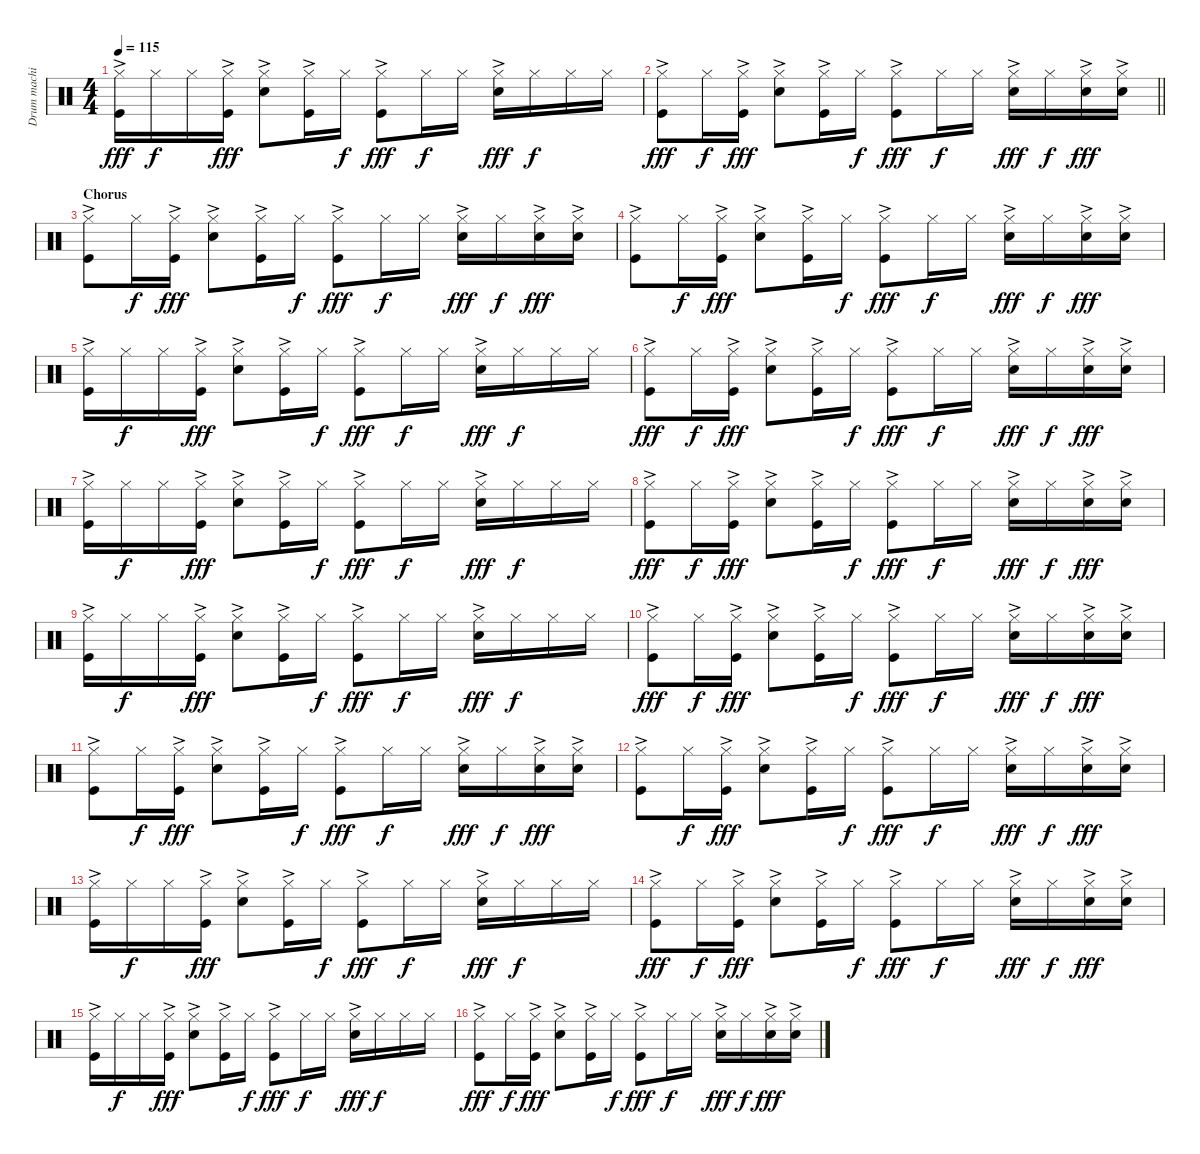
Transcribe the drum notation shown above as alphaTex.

\track ("Drum machine" "Drum machi") {instrument percussion}
\staff {score}
\articulation defaults
\ts (4 4)
\tempo 115
\clef neutral
\ks c
("Hi-Hat (closed)" "Kick (hit)"{ac}).16{dy fff} "Hi-Hat (closed)".16{dy f} "Hi-Hat (closed)".16 ("Hi-Hat (closed)" "Kick (hit)"{ac}).16{dy fff} ("Hi-Hat (closed)" "Snare (hit) 2"{ac}).8 ("Hi-Hat (closed)" "Kick (hit)"{ac}).16 "Hi-Hat (closed)".16{dy f} ("Hi-Hat (closed)" "Kick (hit)"{ac}).8{dy fff} "Hi-Hat (closed)".16{dy f} "Hi-Hat (closed)".16 ("Hi-Hat (closed)" "Snare (hit) 2"{ac}).16{dy fff} "Hi-Hat (closed)".16{dy f} "Hi-Hat (closed)".16 "Hi-Hat (closed)".16 |
\barLineRight lightlight
("Hi-Hat (closed)" "Kick (hit)"{ac}).8{dy fff} "Hi-Hat (closed)".16{dy f} ("Hi-Hat (closed)" "Kick (hit)"{ac}).16{dy fff} ("Hi-Hat (closed)" "Snare (hit) 2"{ac}).8 ("Hi-Hat (closed)" "Kick (hit)"{ac}).16 "Hi-Hat (closed)".16{dy f} ("Hi-Hat (closed)" "Kick (hit)"{ac}).8{dy fff} "Hi-Hat (closed)".16{dy f} "Hi-Hat (closed)".16 ("Hi-Hat (closed)" "Snare (hit) 2"{ac}).16{dy fff} "Hi-Hat (closed)".16{dy f} ("Hi-Hat (closed)" "Snare (hit) 2"{ac}).16{dy fff} ("Hi-Hat (closed)" "Snare (hit) 2"{ac}).16 |
\section ("" "Chorus")
("Hi-Hat (closed)" "Kick (hit)"{ac}).8 "Hi-Hat (closed)".16{dy f} ("Hi-Hat (closed)" "Kick (hit)"{ac}).16{dy fff} ("Hi-Hat (closed)" "Snare (hit) 2"{ac}).8 ("Hi-Hat (closed)" "Kick (hit)"{ac}).16 "Hi-Hat (closed)".16{dy f} ("Hi-Hat (closed)" "Kick (hit)"{ac}).8{dy fff} "Hi-Hat (closed)".16{dy f} "Hi-Hat (closed)".16 ("Hi-Hat (closed)" "Snare (hit) 2"{ac}).16{dy fff} "Hi-Hat (closed)".16{dy f} ("Hi-Hat (closed)" "Snare (hit) 2"{ac}).16{dy fff} ("Hi-Hat (closed)" "Snare (hit) 2"{ac}).16 |
("Hi-Hat (closed)" "Kick (hit)"{ac}).8 "Hi-Hat (closed)".16{dy f} ("Hi-Hat (closed)" "Kick (hit)"{ac}).16{dy fff} ("Hi-Hat (closed)" "Snare (hit) 2"{ac}).8 ("Hi-Hat (closed)" "Kick (hit)"{ac}).16 "Hi-Hat (closed)".16{dy f} ("Hi-Hat (closed)" "Kick (hit)"{ac}).8{dy fff} "Hi-Hat (closed)".16{dy f} "Hi-Hat (closed)".16 ("Hi-Hat (closed)" "Snare (hit) 2"{ac}).16{dy fff} "Hi-Hat (closed)".16{dy f} ("Hi-Hat (closed)" "Snare (hit) 2"{ac}).16{dy fff} ("Hi-Hat (closed)" "Snare (hit) 2"{ac}).16 |
("Hi-Hat (closed)" "Kick (hit)"{ac}).16 "Hi-Hat (closed)".16{dy f} "Hi-Hat (closed)".16 ("Hi-Hat (closed)" "Kick (hit)"{ac}).16{dy fff} ("Hi-Hat (closed)" "Snare (hit) 2"{ac}).8 ("Hi-Hat (closed)" "Kick (hit)"{ac}).16 "Hi-Hat (closed)".16{dy f} ("Hi-Hat (closed)" "Kick (hit)"{ac}).8{dy fff} "Hi-Hat (closed)".16{dy f} "Hi-Hat (closed)".16 ("Hi-Hat (closed)" "Snare (hit) 2"{ac}).16{dy fff} "Hi-Hat (closed)".16{dy f} "Hi-Hat (closed)".16 "Hi-Hat (closed)".16 |
("Hi-Hat (closed)" "Kick (hit)"{ac}).8{dy fff} "Hi-Hat (closed)".16{dy f} ("Hi-Hat (closed)" "Kick (hit)"{ac}).16{dy fff} ("Hi-Hat (closed)" "Snare (hit) 2"{ac}).8 ("Hi-Hat (closed)" "Kick (hit)"{ac}).16 "Hi-Hat (closed)".16{dy f} ("Hi-Hat (closed)" "Kick (hit)"{ac}).8{dy fff} "Hi-Hat (closed)".16{dy f} "Hi-Hat (closed)".16 ("Hi-Hat (closed)" "Snare (hit) 2"{ac}).16{dy fff} "Hi-Hat (closed)".16{dy f} ("Hi-Hat (closed)" "Snare (hit) 2"{ac}).16{dy fff} ("Hi-Hat (closed)" "Snare (hit) 2"{ac}).16 |
("Hi-Hat (closed)" "Kick (hit)"{ac}).16 "Hi-Hat (closed)".16{dy f} "Hi-Hat (closed)".16 ("Hi-Hat (closed)" "Kick (hit)"{ac}).16{dy fff} ("Hi-Hat (closed)" "Snare (hit) 2"{ac}).8 ("Hi-Hat (closed)" "Kick (hit)"{ac}).16 "Hi-Hat (closed)".16{dy f} ("Hi-Hat (closed)" "Kick (hit)"{ac}).8{dy fff} "Hi-Hat (closed)".16{dy f} "Hi-Hat (closed)".16 ("Hi-Hat (closed)" "Snare (hit) 2"{ac}).16{dy fff} "Hi-Hat (closed)".16{dy f} "Hi-Hat (closed)".16 "Hi-Hat (closed)".16 |
("Hi-Hat (closed)" "Kick (hit)"{ac}).8{dy fff} "Hi-Hat (closed)".16{dy f} ("Hi-Hat (closed)" "Kick (hit)"{ac}).16{dy fff} ("Hi-Hat (closed)" "Snare (hit) 2"{ac}).8 ("Hi-Hat (closed)" "Kick (hit)"{ac}).16 "Hi-Hat (closed)".16{dy f} ("Hi-Hat (closed)" "Kick (hit)"{ac}).8{dy fff} "Hi-Hat (closed)".16{dy f} "Hi-Hat (closed)".16 ("Hi-Hat (closed)" "Snare (hit) 2"{ac}).16{dy fff} "Hi-Hat (closed)".16{dy f} ("Hi-Hat (closed)" "Snare (hit) 2"{ac}).16{dy fff} ("Hi-Hat (closed)" "Snare (hit) 2"{ac}).16 |
("Hi-Hat (closed)" "Kick (hit)"{ac}).16 "Hi-Hat (closed)".16{dy f} "Hi-Hat (closed)".16 ("Hi-Hat (closed)" "Kick (hit)"{ac}).16{dy fff} ("Hi-Hat (closed)" "Snare (hit) 2"{ac}).8 ("Hi-Hat (closed)" "Kick (hit)"{ac}).16 "Hi-Hat (closed)".16{dy f} ("Hi-Hat (closed)" "Kick (hit)"{ac}).8{dy fff} "Hi-Hat (closed)".16{dy f} "Hi-Hat (closed)".16 ("Hi-Hat (closed)" "Snare (hit) 2"{ac}).16{dy fff} "Hi-Hat (closed)".16{dy f} "Hi-Hat (closed)".16 "Hi-Hat (closed)".16 |
("Hi-Hat (closed)" "Kick (hit)"{ac}).8{dy fff} "Hi-Hat (closed)".16{dy f} ("Hi-Hat (closed)" "Kick (hit)"{ac}).16{dy fff} ("Hi-Hat (closed)" "Snare (hit) 2"{ac}).8 ("Hi-Hat (closed)" "Kick (hit)"{ac}).16 "Hi-Hat (closed)".16{dy f} ("Hi-Hat (closed)" "Kick (hit)"{ac}).8{dy fff} "Hi-Hat (closed)".16{dy f} "Hi-Hat (closed)".16 ("Hi-Hat (closed)" "Snare (hit) 2"{ac}).16{dy fff} "Hi-Hat (closed)".16{dy f} ("Hi-Hat (closed)" "Snare (hit) 2"{ac}).16{dy fff} ("Hi-Hat (closed)" "Snare (hit) 2"{ac}).16 |
("Hi-Hat (closed)" "Kick (hit)"{ac}).8 "Hi-Hat (closed)".16{dy f} ("Hi-Hat (closed)" "Kick (hit)"{ac}).16{dy fff} ("Hi-Hat (closed)" "Snare (hit) 2"{ac}).8 ("Hi-Hat (closed)" "Kick (hit)"{ac}).16 "Hi-Hat (closed)".16{dy f} ("Hi-Hat (closed)" "Kick (hit)"{ac}).8{dy fff} "Hi-Hat (closed)".16{dy f} "Hi-Hat (closed)".16 ("Hi-Hat (closed)" "Snare (hit) 2"{ac}).16{dy fff} "Hi-Hat (closed)".16{dy f} ("Hi-Hat (closed)" "Snare (hit) 2"{ac}).16{dy fff} ("Hi-Hat (closed)" "Snare (hit) 2"{ac}).16 |
("Hi-Hat (closed)" "Kick (hit)"{ac}).8 "Hi-Hat (closed)".16{dy f} ("Hi-Hat (closed)" "Kick (hit)"{ac}).16{dy fff} ("Hi-Hat (closed)" "Snare (hit) 2"{ac}).8 ("Hi-Hat (closed)" "Kick (hit)"{ac}).16 "Hi-Hat (closed)".16{dy f} ("Hi-Hat (closed)" "Kick (hit)"{ac}).8{dy fff} "Hi-Hat (closed)".16{dy f} "Hi-Hat (closed)".16 ("Hi-Hat (closed)" "Snare (hit) 2"{ac}).16{dy fff} "Hi-Hat (closed)".16{dy f} ("Hi-Hat (closed)" "Snare (hit) 2"{ac}).16{dy fff} ("Hi-Hat (closed)" "Snare (hit) 2"{ac}).16 |
("Hi-Hat (closed)" "Kick (hit)"{ac}).16 "Hi-Hat (closed)".16{dy f} "Hi-Hat (closed)".16 ("Hi-Hat (closed)" "Kick (hit)"{ac}).16{dy fff} ("Hi-Hat (closed)" "Snare (hit) 2"{ac}).8 ("Hi-Hat (closed)" "Kick (hit)"{ac}).16 "Hi-Hat (closed)".16{dy f} ("Hi-Hat (closed)" "Kick (hit)"{ac}).8{dy fff} "Hi-Hat (closed)".16{dy f} "Hi-Hat (closed)".16 ("Hi-Hat (closed)" "Snare (hit) 2"{ac}).16{dy fff} "Hi-Hat (closed)".16{dy f} "Hi-Hat (closed)".16 "Hi-Hat (closed)".16 |
("Hi-Hat (closed)" "Kick (hit)"{ac}).8{dy fff} "Hi-Hat (closed)".16{dy f} ("Hi-Hat (closed)" "Kick (hit)"{ac}).16{dy fff} ("Hi-Hat (closed)" "Snare (hit) 2"{ac}).8 ("Hi-Hat (closed)" "Kick (hit)"{ac}).16 "Hi-Hat (closed)".16{dy f} ("Hi-Hat (closed)" "Kick (hit)"{ac}).8{dy fff} "Hi-Hat (closed)".16{dy f} "Hi-Hat (closed)".16 ("Hi-Hat (closed)" "Snare (hit) 2"{ac}).16{dy fff} "Hi-Hat (closed)".16{dy f} ("Hi-Hat (closed)" "Snare (hit) 2"{ac}).16{dy fff} ("Hi-Hat (closed)" "Snare (hit) 2"{ac}).16 |
("Hi-Hat (closed)" "Kick (hit)"{ac}).16 "Hi-Hat (closed)".16{dy f} "Hi-Hat (closed)".16 ("Hi-Hat (closed)" "Kick (hit)"{ac}).16{dy fff} ("Hi-Hat (closed)" "Snare (hit) 2"{ac}).8 ("Hi-Hat (closed)" "Kick (hit)"{ac}).16 "Hi-Hat (closed)".16{dy f} ("Hi-Hat (closed)" "Kick (hit)"{ac}).8{dy fff} "Hi-Hat (closed)".16{dy f} "Hi-Hat (closed)".16 ("Hi-Hat (closed)" "Snare (hit) 2"{ac}).16{dy fff} "Hi-Hat (closed)".16{dy f} "Hi-Hat (closed)".16 "Hi-Hat (closed)".16 |
("Hi-Hat (closed)" "Kick (hit)"{ac}).8{dy fff} "Hi-Hat (closed)".16{dy f} ("Hi-Hat (closed)" "Kick (hit)"{ac}).16{dy fff} ("Hi-Hat (closed)" "Snare (hit) 2"{ac}).8 ("Hi-Hat (closed)" "Kick (hit)"{ac}).16 "Hi-Hat (closed)".16{dy f} ("Hi-Hat (closed)" "Kick (hit)"{ac}).8{dy fff} "Hi-Hat (closed)".16{dy f} "Hi-Hat (closed)".16 ("Hi-Hat (closed)" "Snare (hit) 2"{ac}).16{dy fff} "Hi-Hat (closed)".16{dy f} ("Hi-Hat (closed)" "Snare (hit) 2"{ac}).16{dy fff} ("Hi-Hat (closed)" "Snare (hit) 2"{ac}).16
